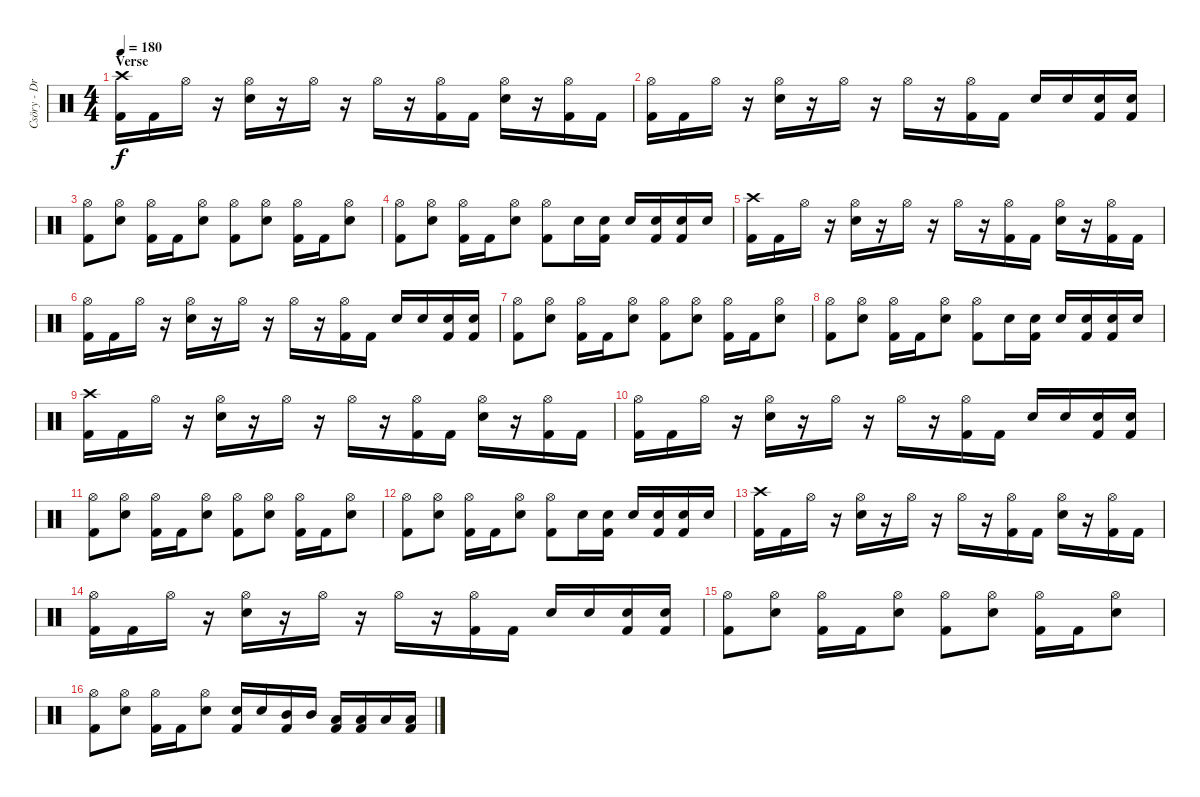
\track ("Csöry - DrumZ" "Csöry - Dr") {instrument percussion}
\staff {score}
\articulation defaults
\ts (4 4)
\section ("" "Verse")
\tempo 180
\clef neutral
\ks c
("Crash high (hit)" "Kick (hit) 2").16{dy f} "Kick (hit) 2".16 "Hi-Hat (open)".16 r.16 ("Hi-Hat (open)" "Snare (hit) 2").16 r.16 "Hi-Hat (open)".16 r.16 "Hi-Hat (open)".16 r.16 ("Hi-Hat (open)" "Kick (hit) 2").16 "Kick (hit) 2".16 ("Hi-Hat (open)" "Snare (hit) 2").16 r.16 ("Hi-Hat (open)" "Kick (hit) 2").16 "Kick (hit) 2".16 |
("Hi-Hat (open)" "Kick (hit) 2").16 "Kick (hit) 2".16 "Hi-Hat (open)".16 r.16 ("Hi-Hat (open)" "Snare (hit) 2").16 r.16 "Hi-Hat (open)".16 r.16 "Hi-Hat (open)".16 r.16 ("Hi-Hat (open)" "Kick (hit) 2").16 "Kick (hit) 2".16 "Snare (hit) 2".16 "Snare (hit) 2".16 ("Snare (hit) 2" "Kick (hit) 2").16 ("Snare (hit) 2" "Kick (hit) 2").16 |
("Hi-Hat (open)" "Kick (hit) 2").8 ("Hi-Hat (open)" "Snare (hit) 2").8 ("Hi-Hat (open)" "Kick (hit) 2").16 "Kick (hit) 2".16 ("Hi-Hat (open)" "Snare (hit) 2").8 ("Hi-Hat (open)" "Kick (hit) 2").8 ("Hi-Hat (open)" "Snare (hit) 2").8 ("Hi-Hat (open)" "Kick (hit) 2").16 "Kick (hit) 2".16 ("Hi-Hat (open)" "Snare (hit) 2").8 |
("Hi-Hat (open)" "Kick (hit) 2").8 ("Hi-Hat (open)" "Snare (hit) 2").8 ("Hi-Hat (open)" "Kick (hit) 2").16 "Kick (hit) 2".16 ("Hi-Hat (open)" "Snare (hit) 2").8 ("Hi-Hat (open)" "Kick (hit) 2").8 "Snare (hit) 2".16 ("Snare (hit) 2" "Kick (hit) 2").16 "Snare (hit) 2".16 ("Snare (hit) 2" "Kick (hit) 2").16 ("Snare (hit) 2" "Kick (hit) 2").16 "Snare (hit) 2".16 |
("Crash high (hit)" "Kick (hit) 2").16 "Kick (hit) 2".16 "Hi-Hat (open)".16 r.16 ("Hi-Hat (open)" "Snare (hit) 2").16 r.16 "Hi-Hat (open)".16 r.16 "Hi-Hat (open)".16 r.16 ("Hi-Hat (open)" "Kick (hit) 2").16 "Kick (hit) 2".16 ("Hi-Hat (open)" "Snare (hit) 2").16 r.16 ("Hi-Hat (open)" "Kick (hit) 2").16 "Kick (hit) 2".16 |
("Hi-Hat (open)" "Kick (hit) 2").16 "Kick (hit) 2".16 "Hi-Hat (open)".16 r.16 ("Hi-Hat (open)" "Snare (hit) 2").16 r.16 "Hi-Hat (open)".16 r.16 "Hi-Hat (open)".16 r.16 ("Hi-Hat (open)" "Kick (hit) 2").16 "Kick (hit) 2".16 "Snare (hit) 2".16 "Snare (hit) 2".16 ("Snare (hit) 2" "Kick (hit) 2").16 ("Snare (hit) 2" "Kick (hit) 2").16 |
("Hi-Hat (open)" "Kick (hit) 2").8 ("Hi-Hat (open)" "Snare (hit) 2").8 ("Hi-Hat (open)" "Kick (hit) 2").16 "Kick (hit) 2".16 ("Hi-Hat (open)" "Snare (hit) 2").8 ("Hi-Hat (open)" "Kick (hit) 2").8 ("Hi-Hat (open)" "Snare (hit) 2").8 ("Hi-Hat (open)" "Kick (hit) 2").16 "Kick (hit) 2".16 ("Hi-Hat (open)" "Snare (hit) 2").8 |
("Hi-Hat (open)" "Kick (hit) 2").8 ("Hi-Hat (open)" "Snare (hit) 2").8 ("Hi-Hat (open)" "Kick (hit) 2").16 "Kick (hit) 2".16 ("Hi-Hat (open)" "Snare (hit) 2").8 ("Hi-Hat (open)" "Kick (hit) 2").8 "Snare (hit) 2".16 ("Snare (hit) 2" "Kick (hit) 2").16 "Snare (hit) 2".16 ("Snare (hit) 2" "Kick (hit) 2").16 ("Snare (hit) 2" "Kick (hit) 2").16 "Snare (hit) 2".16 |
("Crash high (hit)" "Kick (hit) 2").16 "Kick (hit) 2".16 "Hi-Hat (open)".16 r.16 ("Hi-Hat (open)" "Snare (hit) 2").16 r.16 "Hi-Hat (open)".16 r.16 "Hi-Hat (open)".16 r.16 ("Hi-Hat (open)" "Kick (hit) 2").16 "Kick (hit) 2".16 ("Hi-Hat (open)" "Snare (hit) 2").16 r.16 ("Hi-Hat (open)" "Kick (hit) 2").16 "Kick (hit) 2".16 |
("Hi-Hat (open)" "Kick (hit) 2").16 "Kick (hit) 2".16 "Hi-Hat (open)".16 r.16 ("Hi-Hat (open)" "Snare (hit) 2").16 r.16 "Hi-Hat (open)".16 r.16 "Hi-Hat (open)".16 r.16 ("Hi-Hat (open)" "Kick (hit) 2").16 "Kick (hit) 2".16 "Snare (hit) 2".16 "Snare (hit) 2".16 ("Snare (hit) 2" "Kick (hit) 2").16 ("Snare (hit) 2" "Kick (hit) 2").16 |
("Hi-Hat (open)" "Kick (hit) 2").8 ("Hi-Hat (open)" "Snare (hit) 2").8 ("Hi-Hat (open)" "Kick (hit) 2").16 "Kick (hit) 2".16 ("Hi-Hat (open)" "Snare (hit) 2").8 ("Hi-Hat (open)" "Kick (hit) 2").8 ("Hi-Hat (open)" "Snare (hit) 2").8 ("Hi-Hat (open)" "Kick (hit) 2").16 "Kick (hit) 2".16 ("Hi-Hat (open)" "Snare (hit) 2").8 |
("Hi-Hat (open)" "Kick (hit) 2").8 ("Hi-Hat (open)" "Snare (hit) 2").8 ("Hi-Hat (open)" "Kick (hit) 2").16 "Kick (hit) 2".16 ("Hi-Hat (open)" "Snare (hit) 2").8 ("Hi-Hat (open)" "Kick (hit) 2").8 "Snare (hit) 2".16 ("Snare (hit) 2" "Kick (hit) 2").16 "Snare (hit) 2".16 ("Snare (hit) 2" "Kick (hit) 2").16 ("Snare (hit) 2" "Kick (hit) 2").16 "Snare (hit) 2".16 |
("Crash high (hit)" "Kick (hit) 2").16 "Kick (hit) 2".16 "Hi-Hat (open)".16 r.16 ("Hi-Hat (open)" "Snare (hit) 2").16 r.16 "Hi-Hat (open)".16 r.16 "Hi-Hat (open)".16 r.16 ("Hi-Hat (open)" "Kick (hit) 2").16 "Kick (hit) 2".16 ("Hi-Hat (open)" "Snare (hit) 2").16 r.16 ("Hi-Hat (open)" "Kick (hit) 2").16 "Kick (hit) 2".16 |
("Hi-Hat (open)" "Kick (hit) 2").16 "Kick (hit) 2".16 "Hi-Hat (open)".16 r.16 ("Hi-Hat (open)" "Snare (hit) 2").16 r.16 "Hi-Hat (open)".16 r.16 "Hi-Hat (open)".16 r.16 ("Hi-Hat (open)" "Kick (hit) 2").16 "Kick (hit) 2".16 "Snare (hit) 2".16 "Snare (hit) 2".16 ("Snare (hit) 2" "Kick (hit) 2").16 ("Snare (hit) 2" "Kick (hit) 2").16 |
("Hi-Hat (open)" "Kick (hit) 2").8 ("Hi-Hat (open)" "Snare (hit) 2").8 ("Hi-Hat (open)" "Kick (hit) 2").16 "Kick (hit) 2".16 ("Hi-Hat (open)" "Snare (hit) 2").8 ("Hi-Hat (open)" "Kick (hit) 2").8 ("Hi-Hat (open)" "Snare (hit) 2").8 ("Hi-Hat (open)" "Kick (hit) 2").16 "Kick (hit) 2".16 ("Hi-Hat (open)" "Snare (hit) 2").8 |
("Hi-Hat (open)" "Kick (hit) 2").8 ("Hi-Hat (open)" "Snare (hit) 2").8 ("Hi-Hat (open)" "Kick (hit) 2").16 "Kick (hit) 2".16 ("Hi-Hat (open)" "Snare (hit) 2").8 ("Snare (hit) 2" "Kick (hit) 2").16 "Snare (hit) 2".16 ("Mid Tom (hit)" "Kick (hit) 2").16 "Mid Tom (hit)".16 ("Low Tom (hit)" "Kick (hit) 2").16 ("Low Tom (hit)" "Kick (hit) 2").16 "Low Floor Tom (hit)".16 ("Low Floor Tom (hit)" "Kick (hit) 2").16
